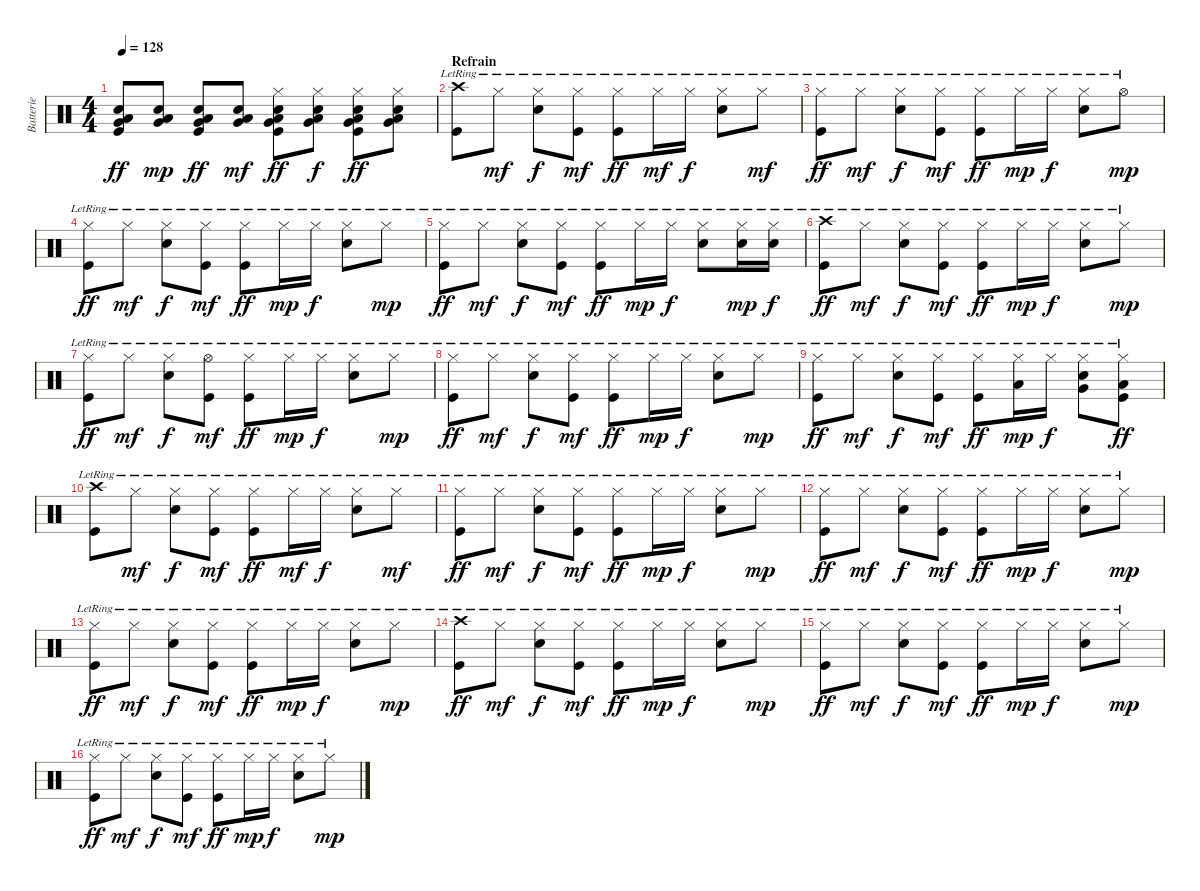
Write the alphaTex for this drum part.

\track ("Batterie" "Batterie") {instrument percussion}
\staff {score}
\articulation defaults
\ts (4 4)
\tempo 128
\clef neutral
\ks c
("Very Low Tom (hit)" "Low Floor Tom (hit)" "Snare (hit) 2" "Kick (hit)").8{dy ff} ("Very Low Tom (hit)" "Low Floor Tom (hit)" "Snare (hit) 2").8{dy mp} ("Very Low Tom (hit)" "Low Floor Tom (hit)" "Snare (hit) 2" "Kick (hit)").8{dy ff} ("Very Low Tom (hit)" "Low Floor Tom (hit)" "Snare (hit) 2").8{dy mf} ("Very Low Tom (hit)" "Low Floor Tom (hit)" "Hi-Hat (closed)" "Snare (hit) 2" "Kick (hit)").8{dy ff} ("Very Low Tom (hit)" "Low Floor Tom (hit)" "Hi-Hat (closed)" "Snare (hit) 2").8{dy f} ("Very Low Tom (hit)" "Low Floor Tom (hit)" "Hi-Hat (closed)" "Snare (hit) 2" "Kick (hit)").8{dy ff} ("Very Low Tom (hit)" "Low Floor Tom (hit)" "Hi-Hat (closed)" "Snare (hit) 2").8 |
\section ("" "Refrain")
("Crash high (hit)"{lr} "Kick (hit)"{lr}).8 "Hi-Hat (closed)"{lr}.8{dy mf} ("Hi-Hat (closed)"{lr} "Snare (hit) 2"{lr}).8{dy f} ("Hi-Hat (closed)"{lr} "Kick (hit)"{lr}).8{dy mf} ("Hi-Hat (closed)"{lr} "Kick (hit)"{lr}).8{dy ff} "Hi-Hat (closed)"{lr}.16{dy mf} "Hi-Hat (closed)"{lr}.16{dy f} ("Hi-Hat (closed)"{lr} "Snare (hit) 2"{lr}).8 "Hi-Hat (closed)"{lr}.8{dy mf} |
("Hi-Hat (closed)"{lr} "Kick (hit)"{lr}).8{dy ff} "Hi-Hat (closed)"{lr}.8{dy mf} ("Hi-Hat (closed)"{lr} "Snare (hit) 2"{lr}).8{dy f} ("Hi-Hat (closed)"{lr} "Kick (hit)"{lr}).8{dy mf} ("Hi-Hat (closed)"{lr} "Kick (hit)"{lr}).8{dy ff} "Hi-Hat (closed)"{lr}.16{dy mp} "Hi-Hat (closed)"{lr}.16{dy f} ("Hi-Hat (closed)"{lr} "Snare (hit) 2"{lr}).8 "Hi-Hat (open)"{lr}.8{dy mp} |
("Hi-Hat (closed)"{lr} "Kick (hit)"{lr}).8{dy ff} "Hi-Hat (closed)"{lr}.8{dy mf} ("Hi-Hat (closed)"{lr} "Snare (hit) 2"{lr}).8{dy f} ("Hi-Hat (closed)"{lr} "Kick (hit)"{lr}).8{dy mf} ("Hi-Hat (closed)"{lr} "Kick (hit)"{lr}).8{dy ff} "Hi-Hat (closed)"{lr}.16{dy mp} "Hi-Hat (closed)"{lr}.16{dy f} ("Hi-Hat (closed)"{lr} "Snare (hit) 2"{lr}).8 "Hi-Hat (closed)"{lr}.8{dy mp} |
("Hi-Hat (closed)"{lr} "Kick (hit)"{lr}).8{dy ff} "Hi-Hat (closed)"{lr}.8{dy mf} ("Hi-Hat (closed)"{lr} "Snare (hit) 2"{lr}).8{dy f} ("Hi-Hat (closed)"{lr} "Kick (hit)"{lr}).8{dy mf} ("Hi-Hat (closed)"{lr} "Kick (hit)"{lr}).8{dy ff} "Hi-Hat (closed)"{lr}.16{dy mp} "Hi-Hat (closed)"{lr}.16{dy f} ("Hi-Hat (closed)"{lr} "Snare (hit) 2"{lr}).8 ("Hi-Hat (closed)"{lr} "Snare (hit) 2").16{dy mp} ("Hi-Hat (closed)"{lr} "Snare (hit) 2").16{dy f} |
("Crash high (hit)" "Kick (hit)"{lr}).8{dy ff} "Hi-Hat (closed)"{lr}.8{dy mf} ("Hi-Hat (closed)"{lr} "Snare (hit) 2"{lr}).8{dy f} ("Hi-Hat (closed)"{lr} "Kick (hit)"{lr}).8{dy mf} ("Hi-Hat (closed)"{lr} "Kick (hit)"{lr}).8{dy ff} "Hi-Hat (closed)"{lr}.16{dy mp} "Hi-Hat (closed)"{lr}.16{dy f} ("Hi-Hat (closed)"{lr} "Snare (hit) 2"{lr}).8 "Hi-Hat (closed)"{lr}.8{dy mp} |
("Hi-Hat (closed)"{lr} "Kick (hit)"{lr}).8{dy ff} "Hi-Hat (closed)"{lr}.8{dy mf} ("Hi-Hat (closed)"{lr} "Snare (hit) 2"{lr}).8{dy f} ("Hi-Hat (open)"{lr} "Kick (hit)"{lr}).8{dy mf} ("Hi-Hat (closed)"{lr} "Kick (hit)"{lr}).8{dy ff} "Hi-Hat (closed)"{lr}.16{dy mp} "Hi-Hat (closed)"{lr}.16{dy f} ("Hi-Hat (closed)"{lr} "Snare (hit) 2"{lr}).8 "Hi-Hat (closed)"{lr}.8{dy mp} |
("Hi-Hat (closed)"{lr} "Kick (hit)"{lr}).8{dy ff} "Hi-Hat (closed)"{lr}.8{dy mf} ("Hi-Hat (closed)"{lr} "Snare (hit) 2"{lr}).8{dy f} ("Hi-Hat (closed)"{lr} "Kick (hit)"{lr}).8{dy mf} ("Hi-Hat (closed)"{lr} "Kick (hit)"{lr}).8{dy ff} "Hi-Hat (closed)"{lr}.16{dy mp} "Hi-Hat (closed)"{lr}.16{dy f} ("Hi-Hat (closed)"{lr} "Snare (hit) 2"{lr}).8 "Hi-Hat (closed)"{lr}.8{dy mp} |
("Hi-Hat (closed)"{lr} "Kick (hit)"{lr}).8{dy ff} "Hi-Hat (closed)"{lr}.8{dy mf} ("Hi-Hat (closed)"{lr} "Snare (hit) 2"{lr}).8{dy f} ("Hi-Hat (closed)"{lr} "Kick (hit)"{lr}).8{dy mf} ("Hi-Hat (closed)"{lr} "Kick (hit)"{lr}).8{dy ff} ("Low Tom (hit)" "Hi-Hat (closed)"{lr}).16{dy mp} "Hi-Hat (closed)"{lr}.16{dy f} ("Very Low Tom (hit)" "Hi-Hat (closed)"{lr} "Snare (hit) 2"{lr}).8 ("Low Floor Tom (hit)" "Hi-Hat (closed)"{lr} "Kick (hit)"{lr}).8{dy ff} |
("Crash high (hit)"{lr} "Kick (hit)"{lr}).8 "Hi-Hat (closed)"{lr}.8{dy mf} ("Hi-Hat (closed)"{lr} "Snare (hit) 2"{lr}).8{dy f} ("Hi-Hat (closed)"{lr} "Kick (hit)"{lr}).8{dy mf} ("Hi-Hat (closed)"{lr} "Kick (hit)"{lr}).8{dy ff} "Hi-Hat (closed)"{lr}.16{dy mf} "Hi-Hat (closed)"{lr}.16{dy f} ("Hi-Hat (closed)"{lr} "Snare (hit) 2"{lr}).8 "Hi-Hat (closed)"{lr}.8{dy mf} |
("Hi-Hat (closed)"{lr} "Kick (hit)"{lr}).8{dy ff} "Hi-Hat (closed)"{lr}.8{dy mf} ("Hi-Hat (closed)"{lr} "Snare (hit) 2"{lr}).8{dy f} ("Hi-Hat (closed)"{lr} "Kick (hit)"{lr}).8{dy mf} ("Hi-Hat (closed)"{lr} "Kick (hit)"{lr}).8{dy ff} "Hi-Hat (closed)"{lr}.16{dy mp} "Hi-Hat (closed)"{lr}.16{dy f} ("Hi-Hat (closed)"{lr} "Snare (hit) 2"{lr}).8 "Hi-Hat (closed)"{lr}.8{dy mp} |
("Hi-Hat (closed)"{lr} "Kick (hit)"{lr}).8{dy ff} "Hi-Hat (closed)"{lr}.8{dy mf} ("Hi-Hat (closed)"{lr} "Snare (hit) 2"{lr}).8{dy f} ("Hi-Hat (closed)"{lr} "Kick (hit)"{lr}).8{dy mf} ("Hi-Hat (closed)"{lr} "Kick (hit)"{lr}).8{dy ff} "Hi-Hat (closed)"{lr}.16{dy mp} "Hi-Hat (closed)"{lr}.16{dy f} ("Hi-Hat (closed)"{lr} "Snare (hit) 2"{lr}).8 "Hi-Hat (closed)"{lr}.8{dy mp} |
("Hi-Hat (closed)"{lr} "Kick (hit)"{lr}).8{dy ff} "Hi-Hat (closed)"{lr}.8{dy mf} ("Hi-Hat (closed)"{lr} "Snare (hit) 2"{lr}).8{dy f} ("Hi-Hat (closed)"{lr} "Kick (hit)"{lr}).8{dy mf} ("Hi-Hat (closed)"{lr} "Kick (hit)"{lr}).8{dy ff} "Hi-Hat (closed)"{lr}.16{dy mp} "Hi-Hat (closed)"{lr}.16{dy f} ("Hi-Hat (closed)"{lr} "Snare (hit) 2"{lr}).8 "Hi-Hat (closed)"{lr}.8{dy mp} |
("Crash high (hit)" "Kick (hit)"{lr}).8{dy ff} "Hi-Hat (closed)"{lr}.8{dy mf} ("Hi-Hat (closed)"{lr} "Snare (hit) 2"{lr}).8{dy f} ("Hi-Hat (closed)"{lr} "Kick (hit)"{lr}).8{dy mf} ("Hi-Hat (closed)"{lr} "Kick (hit)"{lr}).8{dy ff} "Hi-Hat (closed)"{lr}.16{dy mp} "Hi-Hat (closed)"{lr}.16{dy f} ("Hi-Hat (closed)"{lr} "Snare (hit) 2"{lr}).8 "Hi-Hat (closed)"{lr}.8{dy mp} |
("Hi-Hat (closed)"{lr} "Kick (hit)"{lr}).8{dy ff} "Hi-Hat (closed)"{lr}.8{dy mf} ("Hi-Hat (closed)"{lr} "Snare (hit) 2"{lr}).8{dy f} ("Hi-Hat (closed)"{lr} "Kick (hit)"{lr}).8{dy mf} ("Hi-Hat (closed)"{lr} "Kick (hit)"{lr}).8{dy ff} "Hi-Hat (closed)"{lr}.16{dy mp} "Hi-Hat (closed)"{lr}.16{dy f} ("Hi-Hat (closed)"{lr} "Snare (hit) 2"{lr}).8 "Hi-Hat (closed)"{lr}.8{dy mp} |
("Hi-Hat (closed)"{lr} "Kick (hit)"{lr}).8{dy ff} "Hi-Hat (closed)"{lr}.8{dy mf} ("Hi-Hat (closed)"{lr} "Snare (hit) 2"{lr}).8{dy f} ("Hi-Hat (closed)"{lr} "Kick (hit)"{lr}).8{dy mf} ("Hi-Hat (closed)"{lr} "Kick (hit)"{lr}).8{dy ff} "Hi-Hat (closed)"{lr}.16{dy mp} "Hi-Hat (closed)"{lr}.16{dy f} ("Hi-Hat (closed)"{lr} "Snare (hit) 2"{lr}).8 "Hi-Hat (closed)"{lr}.8{dy mp}
